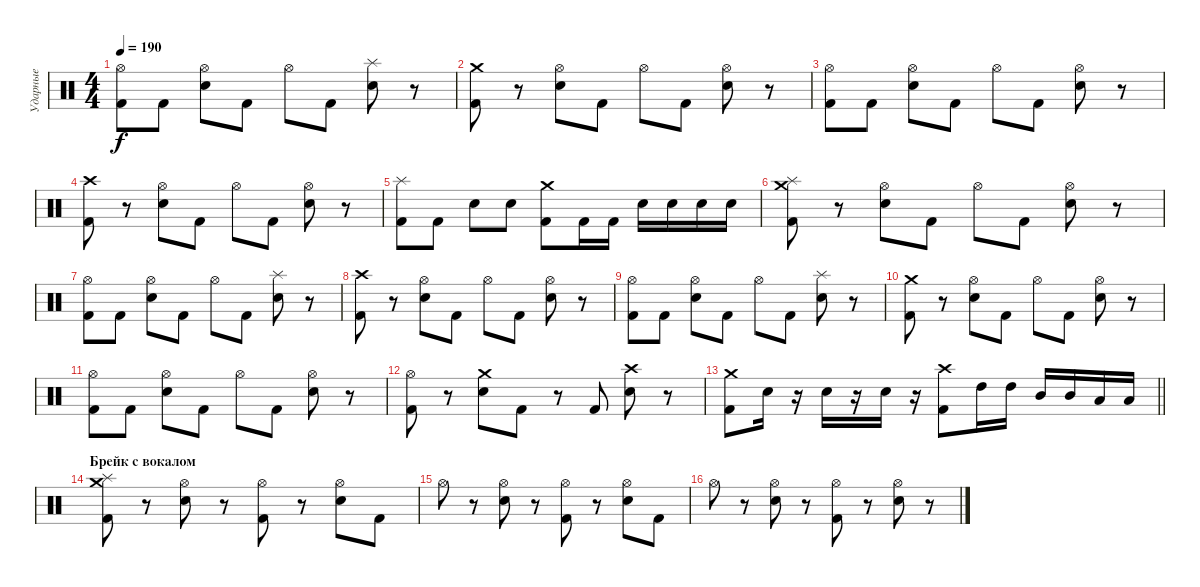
\track ("Ударные" "Ударные") {instrument percussion}
\staff {score}
\articulation defaults
\ts (4 4)
\tempo 190
\clef neutral
\ks c
("Kick (hit) 2" "Hi-Hat (open)").8{dy f} "Kick (hit) 2".8 ("Electric Snare (hit)" "Hi-Hat (open)").8 "Kick (hit) 2".8 "Hi-Hat (open)".8 "Kick (hit) 2".8 ("Electric Snare (hit)" "Splash (hit)").8 r.8 |
("Kick (hit) 2" "Crash medium (hit)").8 r.8 ("Electric Snare (hit)" "Hi-Hat (open)").8 "Kick (hit) 2".8 "Hi-Hat (open)".8 "Kick (hit) 2".8 ("Electric Snare (hit)" "Hi-Hat (open)").8 r.8 |
("Kick (hit) 2" "Hi-Hat (open)").8 "Kick (hit) 2".8 ("Electric Snare (hit)" "Hi-Hat (open)").8 "Kick (hit) 2".8 "Hi-Hat (open)".8 "Kick (hit) 2".8 ("Electric Snare (hit)" "Hi-Hat (open)").8 r.8 |
("Kick (hit) 2" "Crash high (hit)").8 r.8 ("Electric Snare (hit)" "Hi-Hat (open)").8 "Kick (hit) 2".8 "Hi-Hat (open)".8 "Kick (hit) 2".8 ("Electric Snare (hit)" "Hi-Hat (open)").8 r.8 |
("Kick (hit) 2" "Splash (hit)").8 "Kick (hit) 2".8 "Electric Snare (hit)".8 "Electric Snare (hit)".8 ("Kick (hit) 2" "Crash medium (hit)").8 "Kick (hit) 2".16 "Kick (hit) 2".16 "Electric Snare (hit)".16 "Electric Snare (hit)".16 "Electric Snare (hit)".16 "Electric Snare (hit)".16 |
("Kick (hit) 2" "Splash (hit)" "Crash medium (hit)").8 r.8 ("Electric Snare (hit)" "Hi-Hat (open)").8 "Kick (hit) 2".8 "Hi-Hat (open)".8 "Kick (hit) 2".8 ("Electric Snare (hit)" "Hi-Hat (open)").8 r.8 |
("Kick (hit) 2" "Hi-Hat (open)").8 "Kick (hit) 2".8 ("Electric Snare (hit)" "Hi-Hat (open)").8 "Kick (hit) 2".8 "Hi-Hat (open)".8 "Kick (hit) 2".8 ("Electric Snare (hit)" "Splash (hit)").8 r.8 |
("Kick (hit) 2" "Crash high (hit)").8 r.8 ("Electric Snare (hit)" "Hi-Hat (open)").8 "Kick (hit) 2".8 "Hi-Hat (open)".8 "Kick (hit) 2".8 ("Electric Snare (hit)" "Hi-Hat (open)").8 r.8 |
("Kick (hit) 2" "Hi-Hat (open)").8 "Kick (hit) 2".8 ("Electric Snare (hit)" "Hi-Hat (open)").8 "Kick (hit) 2".8 "Hi-Hat (open)".8 "Kick (hit) 2".8 ("Electric Snare (hit)" "Splash (hit)").8 r.8 |
("Kick (hit) 2" "Crash medium (hit)").8 r.8 ("Electric Snare (hit)" "Hi-Hat (open)").8 "Kick (hit) 2".8 "Hi-Hat (open)".8 "Kick (hit) 2".8 ("Electric Snare (hit)" "Hi-Hat (open)").8 r.8 |
("Kick (hit) 2" "Hi-Hat (open)").8 "Kick (hit) 2".8 ("Electric Snare (hit)" "Hi-Hat (open)").8 "Kick (hit) 2".8 "Hi-Hat (open)".8 "Kick (hit) 2".8 ("Electric Snare (hit)" "Hi-Hat (open)").8 r.8 |
("Kick (hit) 2" "Hi-Hat (open)").8 r.8 ("Electric Snare (hit)" "Crash medium (hit)").8 "Kick (hit) 2".8 r.8 "Kick (hit) 2".8 ("Electric Snare (hit)" "Crash high (hit)").8 r.8 |
\barLineRight lightlight
("Kick (hit) 2" "Crash medium (hit)").8 "Electric Snare (hit)".16 r.16 "Electric Snare (hit)".16 r.16 "Electric Snare (hit)".16 r.16 ("Kick (hit) 2" "Crash high (hit)").8 "High Tom (hit)".16 "High Tom (hit)".16 "Mid Tom (hit)".16 "Mid Tom (hit)".16 "Low Tom (hit)".16 "Low Tom (hit)".16 |
\section ("" "Брейк с вокалом")
("Kick (hit) 2" "Splash (hit)" "Crash medium (hit)").8 r.8 ("Electric Snare (hit)" "Hi-Hat (open)").8 r.8 ("Kick (hit) 2" "Hi-Hat (open)").8 r.8 ("Electric Snare (hit)" "Hi-Hat (open)").8 "Kick (hit) 2".8 |
"Hi-Hat (open)".8 r.8 ("Electric Snare (hit)" "Hi-Hat (open)").8 r.8 ("Kick (hit) 2" "Hi-Hat (open)").8 r.8 ("Electric Snare (hit)" "Hi-Hat (open)").8 "Kick (hit) 2".8 |
"Hi-Hat (open)".8 r.8 ("Electric Snare (hit)" "Hi-Hat (open)").8 r.8 ("Kick (hit) 2" "Hi-Hat (open)").8 r.8 ("Electric Snare (hit)" "Hi-Hat (open)").8 r.8
